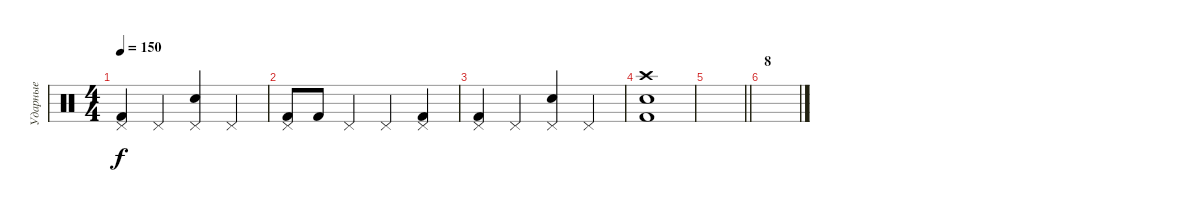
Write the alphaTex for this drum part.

\track ("Ударные" "Ударные") {mute instrument percussion}
\staff {score}
\articulation defaults
\ts (4 4)
\tempo 150
\clef neutral
\ks c
("Pedal Hi-Hat (hit)" "Kick (hit) 2").4{dy f} "Pedal Hi-Hat (hit)".4 ("Pedal Hi-Hat (hit)" "Snare (hit) 2").4 "Pedal Hi-Hat (hit)".4 |
("Pedal Hi-Hat (hit)" "Kick (hit) 2").8 "Kick (hit) 2".8 "Pedal Hi-Hat (hit)".4 "Pedal Hi-Hat (hit)".4 ("Pedal Hi-Hat (hit)" "Kick (hit) 2").4 |
("Pedal Hi-Hat (hit)" "Kick (hit) 2").4 "Pedal Hi-Hat (hit)".4 ("Pedal Hi-Hat (hit)" "Snare (hit) 2").4 "Pedal Hi-Hat (hit)".4 |
("Crash high (hit)" "Snare (hit) 2" "Kick (hit) 2").1 |
\barLineRight lightlight
|
\section ("" "8")
